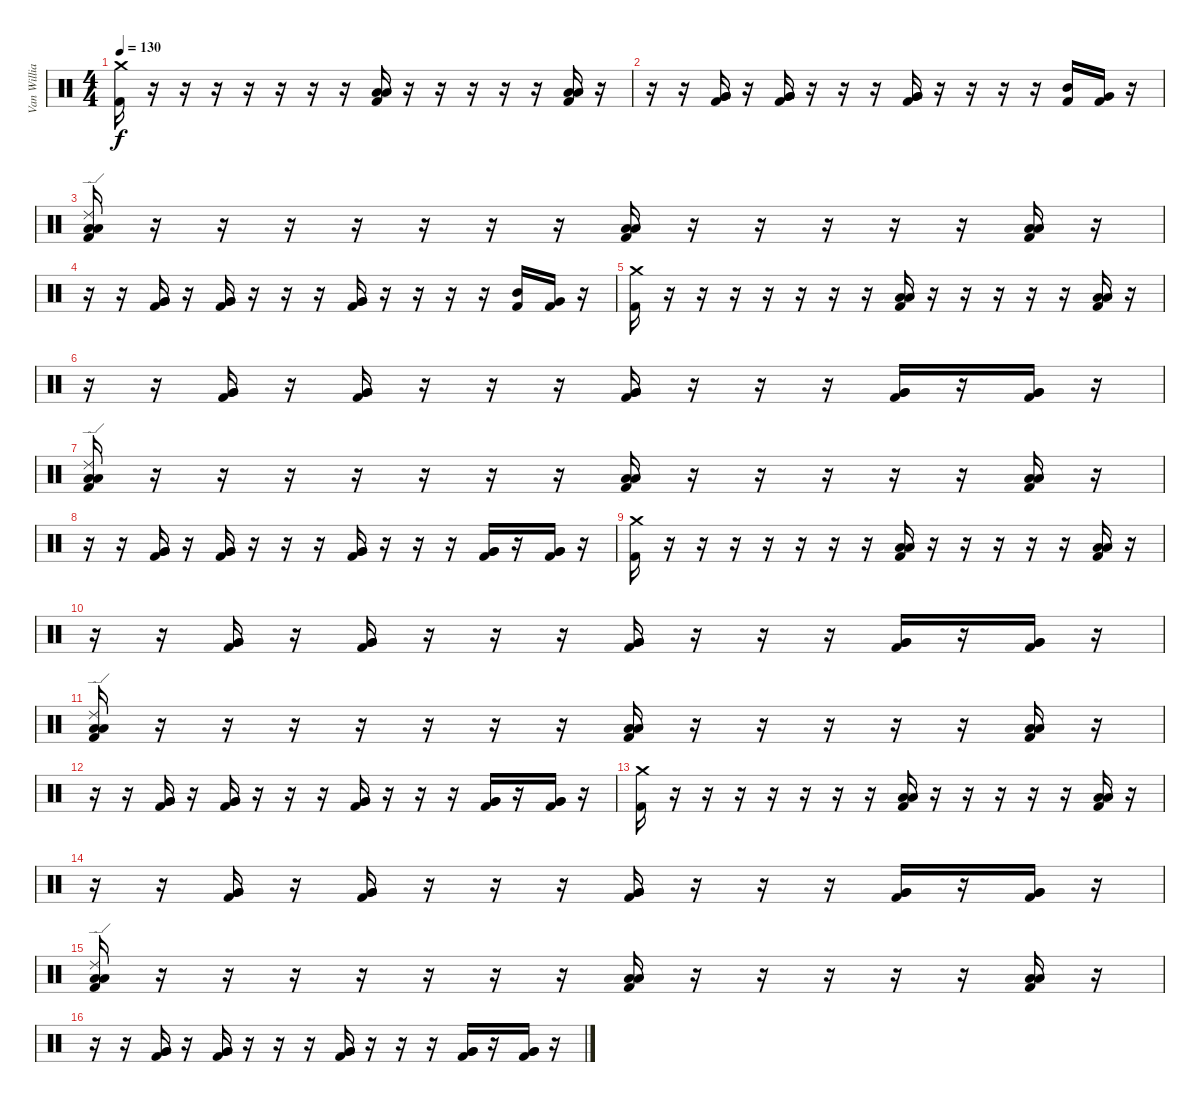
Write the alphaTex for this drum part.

\track ("Van Williams" "Van Willia") {instrument percussion}
\staff {score}
\articulation defaults
\ts (4 4)
\tempo 130
\clef neutral
\ks c
("Crash medium (hit)" "Kick (hit) 2").16{dy f} r.16 r.16 r.16 r.16 r.16 r.16 r.16 ("Kick (hit) 2" "Low Tom (hit)" "Low Tom (hit)").16 r.16 r.16 r.16 r.16 r.16 ("Kick (hit) 2" "Low Tom (hit)" "Low Tom (hit)").16 r.16 |
r.16 r.16 ("Kick (hit) 2" "Very Low Tom (hit)" "Very Low Tom (hit)").16 r.16 ("Kick (hit) 2" "Very Low Tom (hit)" "Very Low Tom (hit)").16 r.16 r.16 r.16 ("Kick (hit) 2" "Very Low Tom (hit)" "Very Low Tom (hit)").16 r.16 r.16 r.16 r.16 ("Kick (hit) 2" "Mid Tom (hit)").16 ("Kick (hit) 2" "Very Low Tom (hit)").16 r.16 |
("Ride (edge) 2" "Kick (hit) 2" "Low Tom (hit)" "Low Tom (hit)").16 r.16 r.16 r.16 r.16 r.16 r.16 r.16 ("Kick (hit) 2" "Low Tom (hit)" "Low Tom (hit)").16 r.16 r.16 r.16 r.16 r.16 ("Kick (hit) 2" "Low Tom (hit)" "Low Tom (hit)").16 r.16 |
r.16 r.16 ("Kick (hit) 2" "Very Low Tom (hit)" "Very Low Tom (hit)").16 r.16 ("Kick (hit) 2" "Very Low Tom (hit)" "Very Low Tom (hit)").16 r.16 r.16 r.16 ("Kick (hit) 2" "Very Low Tom (hit)" "Very Low Tom (hit)").16 r.16 r.16 r.16 r.16 ("Kick (hit) 2" "Mid Tom (hit)").16 ("Kick (hit) 2" "Very Low Tom (hit)").16 r.16 |
("Crash medium (hit)" "Kick (hit) 2").16 r.16 r.16 r.16 r.16 r.16 r.16 r.16 ("Kick (hit) 2" "Low Tom (hit)" "Low Tom (hit)").16 r.16 r.16 r.16 r.16 r.16 ("Kick (hit) 2" "Low Tom (hit)" "Low Tom (hit)").16 r.16 |
r.16 r.16 ("Kick (hit) 2" "Very Low Tom (hit)" "Very Low Tom (hit)").16 r.16 ("Kick (hit) 2" "Very Low Tom (hit)" "Very Low Tom (hit)").16 r.16 r.16 r.16 ("Kick (hit) 2" "Very Low Tom (hit)" "Very Low Tom (hit)").16 r.16 r.16 r.16 ("Kick (hit) 2" "Very Low Tom (hit)" "Very Low Tom (hit)").16 r.16 ("Kick (hit) 2" "Very Low Tom (hit)" "Very Low Tom (hit)").16 r.16 |
("Ride (edge) 2" "Kick (hit) 2" "Low Tom (hit)" "Low Tom (hit)").16 r.16 r.16 r.16 r.16 r.16 r.16 r.16 ("Kick (hit) 2" "Low Tom (hit)" "Low Tom (hit)").16 r.16 r.16 r.16 r.16 r.16 ("Kick (hit) 2" "Low Tom (hit)" "Low Tom (hit)").16 r.16 |
r.16 r.16 ("Kick (hit) 2" "Very Low Tom (hit)" "Very Low Tom (hit)").16 r.16 ("Kick (hit) 2" "Very Low Tom (hit)" "Very Low Tom (hit)").16 r.16 r.16 r.16 ("Kick (hit) 2" "Very Low Tom (hit)" "Very Low Tom (hit)").16 r.16 r.16 r.16 ("Kick (hit) 2" "Very Low Tom (hit)" "Very Low Tom (hit)").16 r.16 ("Kick (hit) 2" "Very Low Tom (hit)" "Very Low Tom (hit)").16 r.16 |
("Crash medium (hit)" "Kick (hit) 2").16 r.16 r.16 r.16 r.16 r.16 r.16 r.16 ("Kick (hit) 2" "Low Tom (hit)" "Low Tom (hit)").16 r.16 r.16 r.16 r.16 r.16 ("Kick (hit) 2" "Low Tom (hit)" "Low Tom (hit)").16 r.16 |
r.16 r.16 ("Kick (hit) 2" "Very Low Tom (hit)" "Very Low Tom (hit)").16 r.16 ("Kick (hit) 2" "Very Low Tom (hit)" "Very Low Tom (hit)").16 r.16 r.16 r.16 ("Kick (hit) 2" "Very Low Tom (hit)" "Very Low Tom (hit)").16 r.16 r.16 r.16 ("Kick (hit) 2" "Very Low Tom (hit)" "Very Low Tom (hit)").16 r.16 ("Kick (hit) 2" "Very Low Tom (hit)" "Very Low Tom (hit)").16 r.16 |
("Ride (edge) 2" "Kick (hit) 2" "Low Tom (hit)" "Low Tom (hit)").16 r.16 r.16 r.16 r.16 r.16 r.16 r.16 ("Kick (hit) 2" "Low Tom (hit)" "Low Tom (hit)").16 r.16 r.16 r.16 r.16 r.16 ("Kick (hit) 2" "Low Tom (hit)" "Low Tom (hit)").16 r.16 |
r.16 r.16 ("Kick (hit) 2" "Very Low Tom (hit)" "Very Low Tom (hit)").16 r.16 ("Kick (hit) 2" "Very Low Tom (hit)" "Very Low Tom (hit)").16 r.16 r.16 r.16 ("Kick (hit) 2" "Very Low Tom (hit)" "Very Low Tom (hit)").16 r.16 r.16 r.16 ("Kick (hit) 2" "Very Low Tom (hit)" "Very Low Tom (hit)").16 r.16 ("Kick (hit) 2" "Very Low Tom (hit)" "Very Low Tom (hit)").16 r.16 |
("Crash medium (hit)" "Kick (hit) 2").16 r.16 r.16 r.16 r.16 r.16 r.16 r.16 ("Kick (hit) 2" "Low Tom (hit)" "Low Tom (hit)").16 r.16 r.16 r.16 r.16 r.16 ("Kick (hit) 2" "Low Tom (hit)" "Low Tom (hit)").16 r.16 |
r.16 r.16 ("Kick (hit) 2" "Very Low Tom (hit)" "Very Low Tom (hit)").16 r.16 ("Kick (hit) 2" "Very Low Tom (hit)" "Very Low Tom (hit)").16 r.16 r.16 r.16 ("Kick (hit) 2" "Very Low Tom (hit)" "Very Low Tom (hit)").16 r.16 r.16 r.16 ("Kick (hit) 2" "Very Low Tom (hit)" "Very Low Tom (hit)").16 r.16 ("Kick (hit) 2" "Very Low Tom (hit)" "Very Low Tom (hit)").16 r.16 |
("Ride (edge) 2" "Kick (hit) 2" "Low Tom (hit)" "Low Tom (hit)").16 r.16 r.16 r.16 r.16 r.16 r.16 r.16 ("Kick (hit) 2" "Low Tom (hit)" "Low Tom (hit)").16 r.16 r.16 r.16 r.16 r.16 ("Kick (hit) 2" "Low Tom (hit)" "Low Tom (hit)").16 r.16 |
r.16 r.16 ("Kick (hit) 2" "Very Low Tom (hit)" "Very Low Tom (hit)").16 r.16 ("Kick (hit) 2" "Very Low Tom (hit)" "Very Low Tom (hit)").16 r.16 r.16 r.16 ("Kick (hit) 2" "Very Low Tom (hit)" "Very Low Tom (hit)").16 r.16 r.16 r.16 ("Kick (hit) 2" "Very Low Tom (hit)" "Very Low Tom (hit)").16 r.16 ("Kick (hit) 2" "Very Low Tom (hit)" "Very Low Tom (hit)").16 r.16
